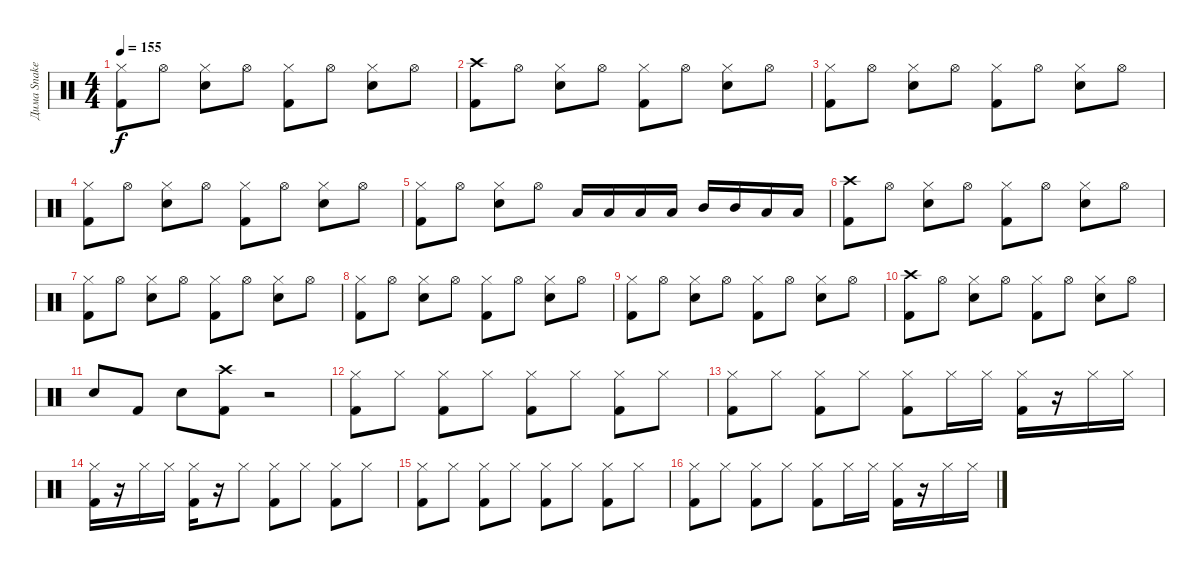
\track ("Дима Snake Хакимов" "Дима Snake") {instrument percussion}
\staff {score}
\articulation defaults
\ts (4 4)
\tempo 155
\clef neutral
\ks c
("Hi-Hat (closed)" "Kick (hit) 2").8{dy f} "Hi-Hat (open)".8 ("Hi-Hat (closed)" "Snare (hit) 2").8 "Hi-Hat (open)".8 ("Hi-Hat (closed)" "Kick (hit) 2").8 "Hi-Hat (open)".8 ("Hi-Hat (closed)" "Snare (hit) 2").8 "Hi-Hat (open)".8 |
("Crash high (hit)" "Kick (hit) 2").8 "Hi-Hat (open)".8 ("Hi-Hat (closed)" "Snare (hit) 2").8 "Hi-Hat (open)".8 ("Hi-Hat (closed)" "Kick (hit) 2").8 "Hi-Hat (open)".8 ("Hi-Hat (closed)" "Snare (hit) 2").8 "Hi-Hat (open)".8 |
("Hi-Hat (closed)" "Kick (hit) 2").8 "Hi-Hat (open)".8 ("Hi-Hat (closed)" "Snare (hit) 2").8 "Hi-Hat (open)".8 ("Hi-Hat (closed)" "Kick (hit) 2").8 "Hi-Hat (open)".8 ("Hi-Hat (closed)" "Snare (hit) 2").8 "Hi-Hat (open)".8 |
("Hi-Hat (closed)" "Kick (hit) 2").8 "Hi-Hat (open)".8 ("Hi-Hat (closed)" "Snare (hit) 2").8 "Hi-Hat (open)".8 ("Hi-Hat (closed)" "Kick (hit) 2").8 "Hi-Hat (open)".8 ("Hi-Hat (closed)" "Snare (hit) 2").8 "Hi-Hat (open)".8 |
("Hi-Hat (closed)" "Kick (hit) 2").8 "Hi-Hat (open)".8 ("Hi-Hat (closed)" "Snare (hit) 2").8 "Hi-Hat (open)".8 "Low Tom (hit)".16 "Low Tom (hit)".16 "Low Tom (hit)".16 "Low Tom (hit)".16 "Mid Tom (hit)".16 "Mid Tom (hit)".16 "Low Tom (hit)".16 "Low Tom (hit)".16 |
("Crash high (hit)" "Kick (hit) 2").8 "Hi-Hat (open)".8 ("Hi-Hat (closed)" "Snare (hit) 2").8 "Hi-Hat (open)".8 ("Hi-Hat (closed)" "Kick (hit) 2").8 "Hi-Hat (open)".8 ("Hi-Hat (closed)" "Snare (hit) 2").8 "Hi-Hat (open)".8 |
("Hi-Hat (closed)" "Kick (hit) 2").8 "Hi-Hat (open)".8 ("Hi-Hat (closed)" "Snare (hit) 2").8 "Hi-Hat (open)".8 ("Hi-Hat (closed)" "Kick (hit) 2").8 "Hi-Hat (open)".8 ("Hi-Hat (closed)" "Snare (hit) 2").8 "Hi-Hat (open)".8 |
("Hi-Hat (closed)" "Kick (hit) 2").8 "Hi-Hat (open)".8 ("Hi-Hat (closed)" "Snare (hit) 2").8 "Hi-Hat (open)".8 ("Hi-Hat (closed)" "Kick (hit) 2").8 "Hi-Hat (open)".8 ("Hi-Hat (closed)" "Snare (hit) 2").8 "Hi-Hat (open)".8 |
("Hi-Hat (closed)" "Kick (hit) 2").8 "Hi-Hat (open)".8 ("Hi-Hat (closed)" "Snare (hit) 2").8 "Hi-Hat (open)".8 ("Hi-Hat (closed)" "Kick (hit) 2").8 "Hi-Hat (open)".8 ("Hi-Hat (closed)" "Snare (hit) 2").8 "Hi-Hat (open)".8 |
("Crash high (hit)" "Kick (hit) 2").8 "Hi-Hat (open)".8 ("Hi-Hat (closed)" "Snare (hit) 2").8 "Hi-Hat (open)".8 ("Hi-Hat (closed)" "Kick (hit) 2").8 "Hi-Hat (open)".8 ("Hi-Hat (closed)" "Snare (hit) 2").8 "Hi-Hat (open)".8 |
"Snare (hit) 2".8 "Kick (hit) 2".8 "Snare (hit) 2".8 ("Crash high (hit)" "Kick (hit) 2").8 r.2 |
("Hi-Hat (closed)" "Kick (hit) 2").8 "Hi-Hat (closed)".8 ("Hi-Hat (closed)" "Kick (hit) 2").8 "Hi-Hat (closed)".8 ("Hi-Hat (closed)" "Kick (hit) 2").8 "Hi-Hat (closed)".8 ("Hi-Hat (closed)" "Kick (hit) 2").8 "Hi-Hat (closed)".8 |
("Hi-Hat (closed)" "Kick (hit) 2").8 "Hi-Hat (closed)".8 ("Hi-Hat (closed)" "Kick (hit) 2").8 "Hi-Hat (closed)".8 ("Hi-Hat (closed)" "Kick (hit) 2").8 "Hi-Hat (closed)".16 "Hi-Hat (closed)".16 ("Hi-Hat (closed)" "Kick (hit) 2").16 r.16 "Hi-Hat (closed)".16 "Hi-Hat (closed)".16 |
("Hi-Hat (closed)" "Kick (hit) 2").16 r.16 "Hi-Hat (closed)".16 "Hi-Hat (closed)".16 ("Hi-Hat (closed)" "Kick (hit) 2").16 r.16 "Hi-Hat (closed)".8 ("Hi-Hat (closed)" "Kick (hit) 2").8 "Hi-Hat (closed)".8 ("Hi-Hat (closed)" "Kick (hit) 2").8 "Hi-Hat (closed)".8 |
("Hi-Hat (closed)" "Kick (hit) 2").8 "Hi-Hat (closed)".8 ("Hi-Hat (closed)" "Kick (hit) 2").8 "Hi-Hat (closed)".8 ("Hi-Hat (closed)" "Kick (hit) 2").8 "Hi-Hat (closed)".8 ("Hi-Hat (closed)" "Kick (hit) 2").8 "Hi-Hat (closed)".8 |
("Hi-Hat (closed)" "Kick (hit) 2").8 "Hi-Hat (closed)".8 ("Hi-Hat (closed)" "Kick (hit) 2").8 "Hi-Hat (closed)".8 ("Hi-Hat (closed)" "Kick (hit) 2").8 "Hi-Hat (closed)".16 "Hi-Hat (closed)".16 ("Hi-Hat (closed)" "Kick (hit) 2").16 r.16 "Hi-Hat (closed)".16 "Hi-Hat (closed)".16
